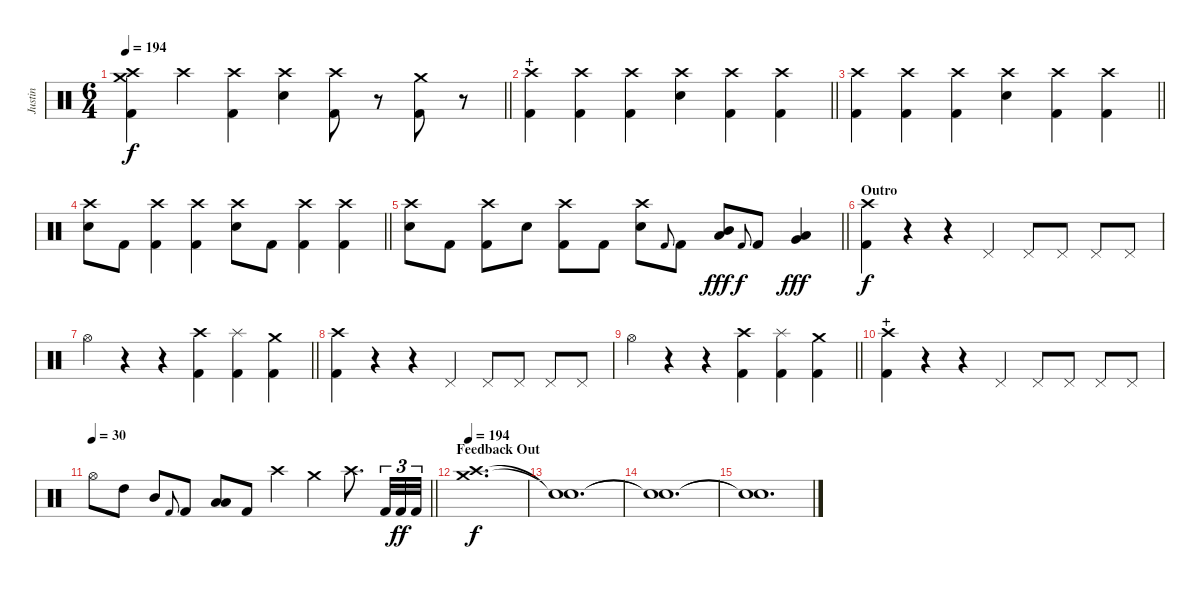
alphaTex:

\track ("Justin" "Justin") {instrument percussion}
\staff {score}
\articulation defaults
\ts (6 4)
\tempo 194
\clef neutral
\barLineRight lightlight
\ks c
("Crash medium (hit)" "Crash high (hit)" "Kick (hit) 2").4{dy f} "Crash high (hit)".4 ("Crash high (hit)" "Kick (hit) 2").4 ("Crash high (hit)" "Electric Snare (hit)").4 ("Crash high (hit)" "Kick (hit) 2").8 r.8 ("Crash medium (hit)" "Kick (hit) 2").8 r.8 |
\section ("" "+")
\barLineRight lightlight
("Crash high (hit)" "Kick (hit) 2").4 ("Crash high (hit)" "Kick (hit) 2").4 ("Crash high (hit)" "Kick (hit) 2").4 ("Crash high (hit)" "Electric Snare (hit)").4 ("Crash high (hit)" "Kick (hit) 2").4 ("Crash high (hit)" "Kick (hit) 2").4 |
\barLineRight lightlight
("Crash high (hit)" "Kick (hit) 2").4 ("Crash high (hit)" "Kick (hit) 2").4 ("Crash high (hit)" "Kick (hit) 2").4 ("Crash high (hit)" "Electric Snare (hit)").4 ("Crash high (hit)" "Kick (hit) 2").4 ("Crash high (hit)" "Kick (hit) 2").4 |
\barLineRight lightlight
("Crash high (hit)" "Electric Snare (hit)").8 "Kick (hit) 2".8 ("Crash high (hit)" "Kick (hit) 2").4 ("Crash high (hit)" "Kick (hit) 2").4 ("Crash high (hit)" "Electric Snare (hit)").8 "Kick (hit) 2".8 ("Crash high (hit)" "Kick (hit) 2").4 ("Crash high (hit)" "Kick (hit) 2").4 |
\barLineRight lightlight
("Crash high (hit)" "Electric Snare (hit)").8 "Kick (hit) 2".8 ("Crash high (hit)" "Kick (hit) 2").8 "Electric Snare (hit)".8 ("Crash high (hit)" "Kick (hit) 2").8 "Kick (hit) 2".8 ("Crash high (hit)" "Electric Snare (hit)").8 "Kick (hit) 2".8{gr onbeat} "Kick (hit) 2".8 ("Mid Tom (hit)" "Low Tom (hit)").8{bu 120 dy fff} "Kick (hit) 2".8{gr onbeat dy f} "Kick (hit) 2".8 ("Low Tom (hit)" "Very Low Tom (hit)").4{bu 120 dy fff} |
\section ("" "Outro")
("Crash high (hit)" "Kick (hit) 2").4{dy f} r.4 r.4 "Pedal Hi-Hat (hit)".4 "Pedal Hi-Hat (hit)".8 "Pedal Hi-Hat (hit)".8 "Pedal Hi-Hat (hit)".8 "Pedal Hi-Hat (hit)".8 |
\barLineRight lightlight "Hi-Hat (open)".4
r.4 r.4 ("Crash high (hit)" "Kick (hit) 2").4 ("Splash (hit)" "Kick (hit) 2").4 ("Crash medium (hit)" "Kick (hit) 2").4 |
("Crash high (hit)" "Kick (hit) 2").4 r.4 r.4 "Pedal Hi-Hat (hit)".4 "Pedal Hi-Hat (hit)".8 "Pedal Hi-Hat (hit)".8 "Pedal Hi-Hat (hit)".8 "Pedal Hi-Hat (hit)".8 |
\barLineRight lightlight "Hi-Hat (open)".4
r.4 r.4 ("Crash high (hit)" "Kick (hit) 2").4 ("Splash (hit)" "Kick (hit) 2").4 ("Crash medium (hit)" "Kick (hit) 2").4 |
\section ("" "+")
("Crash high (hit)" "Kick (hit) 2").4 r.4 r.4 "Pedal Hi-Hat (hit)".4 "Pedal Hi-Hat (hit)".8 "Pedal Hi-Hat (hit)".8 "Pedal Hi-Hat (hit)".8 "Pedal Hi-Hat (hit)".8 |
\tempo 30
\barLineRight lightlight "Hi-Hat (open)".8 "High Tom (hit)".8 "Mid Tom (hit)".8 "Kick (hit) 2".8{gr onbeat} "Kick (hit) 2".8
("Low Tom (hit)" "Low Floor Tom (hit)").8{bu 30} "Kick (hit) 2".8 "Crash high (hit)".4 "Crash medium (hit)".4 "Crash high (hit)".8{d} "Kick (hit) 2".32{tu (3 2)} "Kick (hit) 2".32{tu (3 2) dy ff} "Kick (hit) 2".32{tu (3 2)} |
\section ("" "Feedback Out")
\tempo 194
("Crash medium (hit)" "Crash high (hit)").1{d dy f volume 0} |
("Snare (hit)"{t} "Snare (hit)"{t}).1{d} |
("Snare (hit)"{t} "Snare (hit)"{t}).1{d} |
("Snare (hit)"{t} "Snare (hit)"{t}).1{d}
